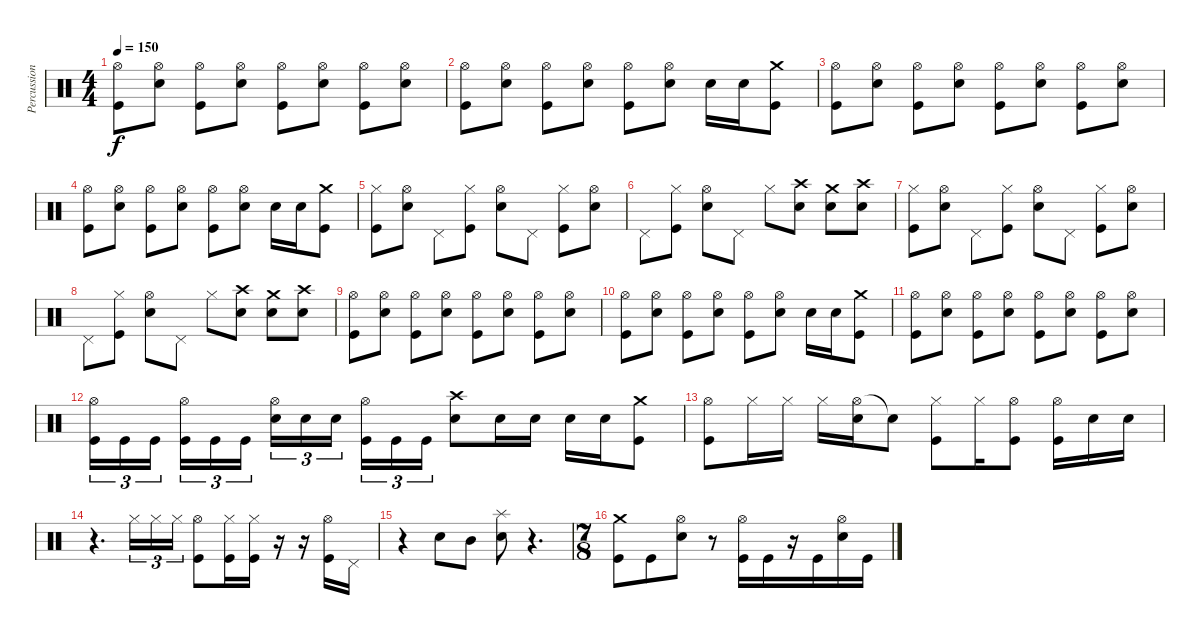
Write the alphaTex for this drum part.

\track ("Percussion" "Percussion") {instrument percussion}
\staff {score}
\articulation defaults
\ts (4 4)
\tempo 150
\clef neutral
\ks c
("Hi-Hat (open)" "Kick (hit)").8{dy f} ("Hi-Hat (open)" "Snare (hit) 2").8 ("Hi-Hat (open)" "Kick (hit)").8 ("Hi-Hat (open)" "Snare (hit) 2").8 ("Hi-Hat (open)" "Kick (hit)").8 ("Hi-Hat (open)" "Snare (hit) 2").8 ("Hi-Hat (open)" "Kick (hit)").8 ("Hi-Hat (open)" "Snare (hit) 2").8 |
("Hi-Hat (open)" "Kick (hit)").8 ("Hi-Hat (open)" "Snare (hit) 2").8 ("Hi-Hat (open)" "Kick (hit)").8 ("Hi-Hat (open)" "Snare (hit) 2").8 ("Hi-Hat (open)" "Kick (hit)").8 ("Hi-Hat (open)" "Snare (hit) 2").8 "Snare (hit) 2".16 "Snare (hit) 2".16 ("Crash medium (hit)" "Kick (hit)").8 |
("Hi-Hat (open)" "Kick (hit)").8 ("Hi-Hat (open)" "Snare (hit) 2").8 ("Hi-Hat (open)" "Kick (hit)").8 ("Hi-Hat (open)" "Snare (hit) 2").8 ("Hi-Hat (open)" "Kick (hit)").8 ("Hi-Hat (open)" "Snare (hit) 2").8 ("Hi-Hat (open)" "Kick (hit)").8 ("Hi-Hat (open)" "Snare (hit) 2").8 |
("Hi-Hat (open)" "Kick (hit)").8 ("Hi-Hat (open)" "Snare (hit) 2").8 ("Hi-Hat (open)" "Kick (hit)").8 ("Hi-Hat (open)" "Snare (hit) 2").8 ("Hi-Hat (open)" "Kick (hit)").8 ("Hi-Hat (open)" "Snare (hit) 2").8 "Snare (hit) 2".16 "Snare (hit) 2".16 ("Crash medium (hit)" "Kick (hit)").8 |
("Hi-Hat (closed)" "Kick (hit)").8 ("Hi-Hat (open)" "Snare (hit) 2").8 "Pedal Hi-Hat (hit)".8 ("Hi-Hat (closed)" "Kick (hit)").8 ("Hi-Hat (open)" "Snare (hit) 2").8 "Pedal Hi-Hat (hit)".8 ("Hi-Hat (closed)" "Kick (hit)").8 ("Hi-Hat (open)" "Snare (hit) 2").8 |
"Pedal Hi-Hat (hit)".8 ("Hi-Hat (closed)" "Kick (hit)").8 ("Hi-Hat (open)" "Snare (hit) 2").8 "Pedal Hi-Hat (hit)".8 "Hi-Hat (closed)".8 ("Crash high (hit)" "Snare (hit) 2").8 ("Crash medium (hit)" "Snare (hit) 2").8 ("Crash high (hit)" "Snare (hit) 2").8 |
("Hi-Hat (closed)" "Kick (hit)").8 ("Hi-Hat (open)" "Snare (hit) 2").8 "Pedal Hi-Hat (hit)".8 ("Hi-Hat (closed)" "Kick (hit)").8 ("Hi-Hat (open)" "Snare (hit) 2").8 "Pedal Hi-Hat (hit)".8 ("Hi-Hat (closed)" "Kick (hit)").8 ("Hi-Hat (open)" "Snare (hit) 2").8 |
"Pedal Hi-Hat (hit)".8 ("Hi-Hat (closed)" "Kick (hit)").8 ("Hi-Hat (open)" "Snare (hit) 2").8 "Pedal Hi-Hat (hit)".8 "Hi-Hat (closed)".8 ("Crash high (hit)" "Snare (hit) 2").8 ("Crash medium (hit)" "Snare (hit) 2").8 ("Crash high (hit)" "Snare (hit) 2").8 |
("Hi-Hat (open)" "Kick (hit)").8 ("Hi-Hat (open)" "Snare (hit) 2").8 ("Hi-Hat (open)" "Kick (hit)").8 ("Hi-Hat (open)" "Snare (hit) 2").8 ("Hi-Hat (open)" "Kick (hit)").8 ("Hi-Hat (open)" "Snare (hit) 2").8 ("Hi-Hat (open)" "Kick (hit)").8 ("Hi-Hat (open)" "Snare (hit) 2").8 |
("Hi-Hat (open)" "Kick (hit)").8 ("Hi-Hat (open)" "Snare (hit) 2").8 ("Hi-Hat (open)" "Kick (hit)").8 ("Hi-Hat (open)" "Snare (hit) 2").8 ("Hi-Hat (open)" "Kick (hit)").8 ("Hi-Hat (open)" "Snare (hit) 2").8 "Snare (hit) 2".16 "Snare (hit) 2".16 ("Crash medium (hit)" "Kick (hit)").8 |
("Hi-Hat (open)" "Kick (hit)").8 ("Hi-Hat (open)" "Snare (hit) 2").8 ("Hi-Hat (open)" "Kick (hit)").8 ("Hi-Hat (open)" "Snare (hit) 2").8 ("Hi-Hat (open)" "Kick (hit)").8 ("Hi-Hat (open)" "Snare (hit) 2").8 ("Hi-Hat (open)" "Kick (hit)").8 ("Hi-Hat (open)" "Snare (hit) 2").8 |
("Hi-Hat (open)" "Kick (hit)").16{tu (3 2)} "Kick (hit)".16{tu (3 2)} "Kick (hit)".16{tu (3 2)} ("Hi-Hat (open)" "Kick (hit)").16{tu (3 2)} "Kick (hit)".16{tu (3 2)} "Kick (hit)".16{tu (3 2)} ("Hi-Hat (open)" "Snare (hit) 2").16{tu (3 2)} "Snare (hit) 2".16{tu (3 2)} "Snare (hit) 2".16{tu (3 2)} ("Hi-Hat (open)" "Kick (hit)").16{tu (3 2)} "Kick (hit)".16{tu (3 2)} "Kick (hit)".16{tu (3 2)} ("Crash high (hit)" "Snare (hit) 2").8 "Snare (hit) 2".16 "Snare (hit) 2".16 "Snare (hit) 2".16 "Snare (hit) 2".16 ("Crash medium (hit)" "Kick (hit)").8 |
("Hi-Hat (open)" "Kick (hit)").8 "Hi-Hat (closed)".16 "Hi-Hat (closed)".16 "Hi-Hat (closed)".16 ("Hi-Hat (open)" "Snare (hit) 2").16 "Snare (hit)"{t}.8 ("Hi-Hat (closed)" "Kick (hit)").8 "Hi-Hat (closed)".16 ("Hi-Hat (open)" "Kick (hit)").8 ("Hi-Hat (open)" "Kick (hit)").16 "Snare (hit) 2".16 "Snare (hit) 2".16 |
r.4{d} "Hi-Hat (closed)".16{tu (3 2)} "Hi-Hat (closed)".16{tu (3 2)} "Hi-Hat (closed)".16{tu (3 2)} ("Hi-Hat (open)" "Kick (hit)").8 ("Hi-Hat (closed)" "Kick (hit)").16 ("Hi-Hat (closed)" "Kick (hit)").16 r.16 r.16 ("Hi-Hat (open)" "Kick (hit)").16 "Pedal Hi-Hat (hit)".16 |
r.4 "Snare (hit) 2".8 "Mid Tom (hit)".8 ("Splash (hit)" "Snare (hit) 2").8 r.4{d} |
\ts (7 8)
("Crash medium (hit)" "Kick (hit)").8 "Kick (hit)".8 ("Hi-Hat (open)" "Snare (hit) 2").8 r.8 ("Hi-Hat (open)" "Kick (hit)").16 "Kick (hit)".16 r.16 "Kick (hit)".16 ("Hi-Hat (open)" "Snare (hit) 2").16 "Kick (hit)".16
